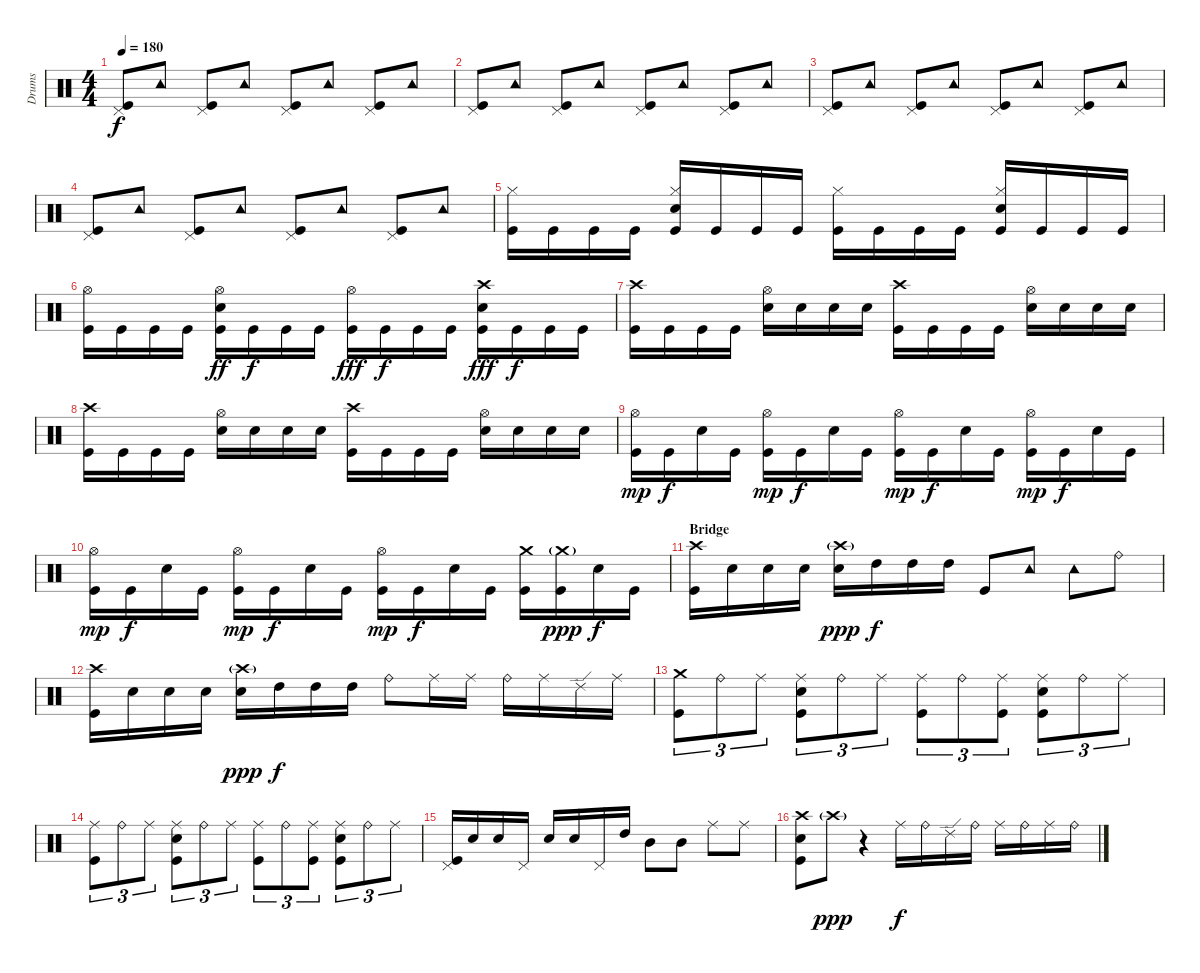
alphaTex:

\track ("Drums" "Drums") {instrument percussion}
\staff {score}
\articulation defaults
\ts (4 4)
\tempo 180
\clef neutral
\ks c
("Pedal Hi-Hat (hit)" "Kick (hit)").8{dy f} "Tambourine (hit)".8 ("Pedal Hi-Hat (hit)" "Kick (hit)").8 "Tambourine (hit)".8 ("Pedal Hi-Hat (hit)" "Kick (hit)").8 "Tambourine (hit)".8 ("Pedal Hi-Hat (hit)" "Kick (hit)").8 "Tambourine (hit)".8 |
("Pedal Hi-Hat (hit)" "Kick (hit)").8 "Tambourine (hit)".8 ("Pedal Hi-Hat (hit)" "Kick (hit)").8 "Tambourine (hit)".8 ("Pedal Hi-Hat (hit)" "Kick (hit)").8 "Tambourine (hit)".8 ("Pedal Hi-Hat (hit)" "Kick (hit)").8 "Tambourine (hit)".8 |
("Pedal Hi-Hat (hit)" "Kick (hit)").8 "Tambourine (hit)".8 ("Pedal Hi-Hat (hit)" "Kick (hit)").8 "Tambourine (hit)".8 ("Pedal Hi-Hat (hit)" "Kick (hit)").8 "Tambourine (hit)".8 ("Pedal Hi-Hat (hit)" "Kick (hit)").8 "Tambourine (hit)".8 |
("Pedal Hi-Hat (hit)" "Kick (hit)").8 "Tambourine (hit)".8 ("Pedal Hi-Hat (hit)" "Kick (hit)").8 "Tambourine (hit)".8 ("Pedal Hi-Hat (hit)" "Kick (hit)").8 "Tambourine (hit)".8 ("Pedal Hi-Hat (hit)" "Kick (hit)").8 "Tambourine (hit)".8 |
("Hi-Hat (closed)" "Kick (hit)").16 "Kick (hit)".16 "Kick (hit)".16 "Kick (hit)".16 ("Hi-Hat (closed)" "Electric Snare (hit)" "Kick (hit)").16 "Kick (hit)".16 "Kick (hit)".16 "Kick (hit)".16 ("Hi-Hat (closed)" "Kick (hit)").16 "Kick (hit)".16 "Kick (hit)".16 "Kick (hit)".16 ("Hi-Hat (closed)" "Electric Snare (hit)" "Kick (hit)").16 "Kick (hit)".16 "Kick (hit)".16 "Kick (hit)".16 |
("Hi-Hat (open)" "Kick (hit)").16 "Kick (hit)".16 "Kick (hit)".16 "Kick (hit)".16 ("Hi-Hat (open)" "Electric Snare (hit)" "Kick (hit)").16{dy ff} "Kick (hit)".16{dy f} "Kick (hit)".16 "Kick (hit)".16 ("Hi-Hat (open)" "Kick (hit)").16{dy fff} "Kick (hit)".16{dy f} "Kick (hit)".16 "Kick (hit)".16 ("Crash high (hit)" "Electric Snare (hit)" "Kick (hit)").16{dy fff} "Kick (hit)".16{dy f} "Kick (hit)".16 "Kick (hit)".16 |
("Crash high (hit)" "Kick (hit)").16 "Kick (hit)".16 "Kick (hit)".16 "Kick (hit)".16 ("Hi-Hat (open)" "Electric Snare (hit)").16 "Electric Snare (hit)".16 "Electric Snare (hit)".16 "Electric Snare (hit)".16 ("Crash high (hit)" "Kick (hit)").16 "Kick (hit)".16 "Kick (hit)".16 "Kick (hit)".16 ("Hi-Hat (open)" "Electric Snare (hit)").16 "Electric Snare (hit)".16 "Electric Snare (hit)".16 "Electric Snare (hit)".16 |
("Crash high (hit)" "Kick (hit)").16 "Kick (hit)".16 "Kick (hit)".16 "Kick (hit)".16 ("Hi-Hat (open)" "Electric Snare (hit)").16 "Electric Snare (hit)".16 "Electric Snare (hit)".16 "Electric Snare (hit)".16 ("Crash high (hit)" "Kick (hit)").16 "Kick (hit)".16 "Kick (hit)".16 "Kick (hit)".16 ("Hi-Hat (open)" "Electric Snare (hit)").16 "Electric Snare (hit)".16 "Electric Snare (hit)".16 "Electric Snare (hit)".16 |
("Hi-Hat (open)" "Kick (hit)").16{dy mp} "Kick (hit)".16{dy f} "Electric Snare (hit)".16 "Kick (hit)".16 ("Hi-Hat (open)" "Kick (hit)").16{dy mp} "Kick (hit)".16{dy f} "Electric Snare (hit)".16 "Kick (hit)".16 ("Hi-Hat (open)" "Kick (hit)").16{dy mp} "Kick (hit)".16{dy f} "Electric Snare (hit)".16 "Kick (hit)".16 ("Hi-Hat (open)" "Kick (hit)").16{dy mp} "Kick (hit)".16{dy f} "Electric Snare (hit)".16 "Kick (hit)".16 |
("Hi-Hat (open)" "Kick (hit)").16{dy mp} "Kick (hit)".16{dy f} "Electric Snare (hit)".16 "Kick (hit)".16 ("Hi-Hat (open)" "Kick (hit)").16{dy mp} "Kick (hit)".16{dy f} "Electric Snare (hit)".16 "Kick (hit)".16 ("Hi-Hat (open)" "Kick (hit)").16{dy mp} "Kick (hit)".16{dy f} "Electric Snare (hit)".16 "Kick (hit)".16 ("Crash medium (hit)" "Kick (hit)").16 ("Crash medium (hit)"{g} "Kick (hit)").16{dy ppp} "Electric Snare (hit)".16{dy f} "Kick (hit)".16 |
\section ("" "Bridge")
("Crash high (hit)" "Kick (hit)").16 "Electric Snare (hit)".16 "Electric Snare (hit)".16 "Electric Snare (hit)".16 ("Crash high (hit)"{g} "Electric Snare (hit)").16{dy ppp} "High Tom (hit)".16{dy f} "High Tom (hit)".16 "High Tom (hit)".16 "Kick (hit)".8 "Tambourine (hit)".8 "Tambourine (hit)".8 "Ride (bell)".8 |
("Crash high (hit)" "Kick (hit)").16 "Electric Snare (hit)".16 "Electric Snare (hit)".16 "Electric Snare (hit)".16 ("Crash high (hit)"{g} "Electric Snare (hit)").16{dy ppp} "High Tom (hit)".16{dy f} "High Tom (hit)".16 "High Tom (hit)".16 "Ride (bell)".8 "Ride (middle)".16 "Ride (middle)".16 "Ride (bell)".16 "Ride (middle)".16 "Ride (edge) 2".16 "Ride (middle)".16 |
("Crash medium (hit)" "Kick (hit)").8{tu (3 2)} "Ride (bell)".8{tu (3 2)} "Ride (middle)".8{tu (3 2)} ("Ride (middle)" "Electric Snare (hit)" "Kick (hit)").8{tu (3 2)} "Ride (bell)".8{tu (3 2)} "Ride (middle)".8{tu (3 2)} ("Ride (middle)" "Kick (hit)").8{tu (3 2)} "Ride (bell)".8{tu (3 2)} ("Ride (middle)" "Kick (hit)").8{tu (3 2)} ("Ride (middle)" "Electric Snare (hit)" "Kick (hit)").8{tu (3 2)} "Ride (bell)".8{tu (3 2)} "Ride (middle)".8{tu (3 2)} |
("Ride (middle)" "Kick (hit)").8{tu (3 2)} "Ride (bell)".8{tu (3 2)} "Ride (middle)".8{tu (3 2)} ("Ride (middle)" "Electric Snare (hit)" "Kick (hit)").8{tu (3 2)} "Ride (bell)".8{tu (3 2)} "Ride (middle)".8{tu (3 2)} ("Ride (middle)" "Kick (hit)").8{tu (3 2)} "Ride (bell)".8{tu (3 2)} ("Ride (middle)" "Kick (hit)").8{tu (3 2)} ("Ride (middle)" "Electric Snare (hit)" "Kick (hit)").8{tu (3 2)} "Ride (bell)".8{tu (3 2)} "Ride (middle)".8{tu (3 2)} |
("Pedal Hi-Hat (hit)" "Kick (hit)").16 "Electric Snare (hit)".16 "Electric Snare (hit)".16 "Pedal Hi-Hat (hit)".16 "Electric Snare (hit)".16 "Electric Snare (hit)".16 "Pedal Hi-Hat (hit)".16 "High Tom (hit)".16 "Mid Tom (hit)".8 "Mid Tom (hit)".8 "Ride (middle)".8 "Ride (middle)".8 |
("Crash high (hit)" "Electric Snare (hit)" "Kick (hit)").8 "Crash high (hit)"{g}.8{dy ppp} r.4 "Ride (middle)".16{dy f} "Ride (bell)".16 "Ride (edge) 2".16 "Ride (bell)".16 "Ride (middle)".16 "Ride (bell)".16 "Ride (middle)".16 "Ride (bell)".16
